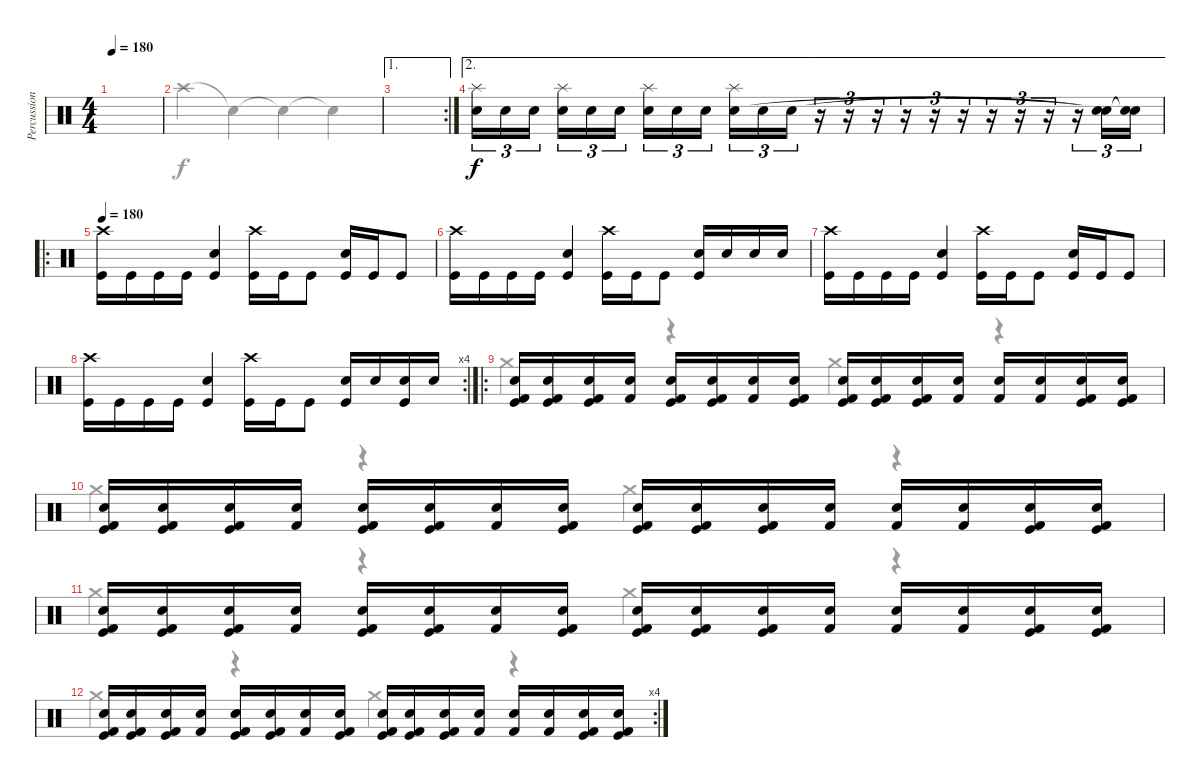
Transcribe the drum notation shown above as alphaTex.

\track ("Percussion" "Percussion") {instrument percussion}
\staff {score}
\articulation defaults
\voice
\ts (4 4)
\tempo 180
\clef neutral
\ks c
|
|
\ae 1
\rc 2
|
\ae 2
("Splash (hit)" "Snare (hit) 2").16{tu (3 2)} "Snare (hit) 2".16{tu (3 2)} "Snare (hit) 2".16{tu (3 2) beam splitsecondary} ("Splash (hit)" "Snare (hit) 2").16{tu (3 2)} "Snare (hit) 2".16{tu (3 2)} "Snare (hit) 2".16{tu (3 2)} ("Splash (hit)" "Snare (hit) 2").16{tu (3 2)} "Snare (hit) 2".16{tu (3 2)} "Snare (hit) 2".16{tu (3 2) beam splitsecondary} ("Splash (hit)" "Snare (hit) 2").16{tu (3 2)} "Snare (hit) 2".16{tu (3 2)} "Snare (hit) 2".16{tu (3 2)} r.16{tu (3 2)} r.16{tu (3 2)} r.16{tu (3 2)} r.16{tu (3 2)} r.16{tu (3 2)} r.16{tu (3 2)} r.16{tu (3 2)} r.16{tu (3 2)} r.16{tu (3 2)} r.16{tu (3 2)} ("Snare (hit)"{t} "Snare (hit)"{t}).16{tu (3 2)} ("Snare (hit)"{t} "Snare (hit)"{t}).16{tu (3 2)} |
\ro
\tempo 180
("Crash high (hit)" "Kick (hit)").16 "Kick (hit)".16 "Kick (hit)".16 "Kick (hit)".16 ("Snare (hit) 2" "Kick (hit)").4 ("Crash high (hit)" "Kick (hit)").16 "Kick (hit)".16 "Kick (hit)".8 ("Snare (hit) 2" "Kick (hit)").16 "Kick (hit)".16 "Kick (hit)".8 |
("Crash high (hit)" "Kick (hit)").16 "Kick (hit)".16 "Kick (hit)".16 "Kick (hit)".16 ("Snare (hit) 2" "Kick (hit)").4 ("Crash high (hit)" "Kick (hit)").16 "Kick (hit)".16 "Kick (hit)".8 ("Snare (hit) 2" "Kick (hit)").16 "Snare (hit) 2".16 "Snare (hit) 2".16 "Snare (hit) 2".16 |
("Crash high (hit)" "Kick (hit)").16 "Kick (hit)".16 "Kick (hit)".16 "Kick (hit)".16 ("Snare (hit) 2" "Kick (hit)").4 ("Crash high (hit)" "Kick (hit)").16 "Kick (hit)".16 "Kick (hit)".8 ("Snare (hit) 2" "Kick (hit)").16 "Kick (hit)".16 "Kick (hit)".8 |
\rc 4
("Crash high (hit)" "Kick (hit)").16 "Kick (hit)".16 "Kick (hit)".16 "Kick (hit)".16 ("Snare (hit) 2" "Kick (hit)").4 ("Crash high (hit)" "Kick (hit)").16 "Kick (hit)".16 "Kick (hit)".8 ("Snare (hit) 2" "Kick (hit)").16 "Snare (hit) 2".16 ("Snare (hit) 2" "Kick (hit)").16 "Snare (hit) 2".16 |
\ro
("Snare (hit) 2" "Kick (hit) 2" "Kick (hit)").16 ("Snare (hit) 2" "Kick (hit) 2" "Kick (hit)").16 ("Snare (hit) 2" "Kick (hit) 2" "Kick (hit)").16 ("Snare (hit) 2" "Kick (hit) 2").16 ("Snare (hit) 2" "Kick (hit) 2" "Kick (hit)").16 ("Snare (hit) 2" "Kick (hit) 2" "Kick (hit)").16 ("Snare (hit) 2" "Kick (hit) 2").16 ("Snare (hit) 2" "Kick (hit) 2" "Kick (hit)").16 ("Snare (hit) 2" "Kick (hit) 2" "Kick (hit)").16 ("Snare (hit) 2" "Kick (hit) 2" "Kick (hit)").16 ("Snare (hit) 2" "Kick (hit) 2" "Kick (hit)").16 ("Snare (hit) 2" "Kick (hit) 2").16 ("Snare (hit) 2" "Kick (hit) 2").16 ("Snare (hit) 2" "Kick (hit) 2").16 ("Snare (hit) 2" "Kick (hit) 2" "Kick (hit)").16 ("Snare (hit) 2" "Kick (hit) 2" "Kick (hit)").16 |
("Snare (hit) 2" "Kick (hit) 2" "Kick (hit)").16 ("Snare (hit) 2" "Kick (hit) 2" "Kick (hit)").16 ("Snare (hit) 2" "Kick (hit) 2" "Kick (hit)").16 ("Snare (hit) 2" "Kick (hit) 2").16 ("Snare (hit) 2" "Kick (hit) 2" "Kick (hit)").16 ("Snare (hit) 2" "Kick (hit) 2" "Kick (hit)").16 ("Snare (hit) 2" "Kick (hit) 2").16 ("Snare (hit) 2" "Kick (hit) 2" "Kick (hit)").16 ("Snare (hit) 2" "Kick (hit) 2" "Kick (hit)").16 ("Snare (hit) 2" "Kick (hit) 2" "Kick (hit)").16 ("Snare (hit) 2" "Kick (hit) 2" "Kick (hit)").16 ("Snare (hit) 2" "Kick (hit) 2").16 ("Snare (hit) 2" "Kick (hit) 2").16 ("Snare (hit) 2" "Kick (hit) 2").16 ("Snare (hit) 2" "Kick (hit) 2" "Kick (hit)").16 ("Snare (hit) 2" "Kick (hit) 2" "Kick (hit)").16 |
("Snare (hit) 2" "Kick (hit) 2" "Kick (hit)").16 ("Snare (hit) 2" "Kick (hit) 2" "Kick (hit)").16 ("Snare (hit) 2" "Kick (hit) 2" "Kick (hit)").16 ("Snare (hit) 2" "Kick (hit) 2").16 ("Snare (hit) 2" "Kick (hit) 2" "Kick (hit)").16 ("Snare (hit) 2" "Kick (hit) 2" "Kick (hit)").16 ("Snare (hit) 2" "Kick (hit) 2").16 ("Snare (hit) 2" "Kick (hit) 2" "Kick (hit)").16 ("Snare (hit) 2" "Kick (hit) 2" "Kick (hit)").16 ("Snare (hit) 2" "Kick (hit) 2" "Kick (hit)").16 ("Snare (hit) 2" "Kick (hit) 2" "Kick (hit)").16 ("Snare (hit) 2" "Kick (hit) 2").16 ("Snare (hit) 2" "Kick (hit) 2").16 ("Snare (hit) 2" "Kick (hit) 2").16 ("Snare (hit) 2" "Kick (hit) 2" "Kick (hit)").16 ("Snare (hit) 2" "Kick (hit) 2" "Kick (hit)").16 |
\rc 4
("Snare (hit) 2" "Kick (hit) 2" "Kick (hit)").16 ("Snare (hit) 2" "Kick (hit) 2" "Kick (hit)").16 ("Snare (hit) 2" "Kick (hit) 2" "Kick (hit)").16 ("Snare (hit) 2" "Kick (hit) 2").16 ("Snare (hit) 2" "Kick (hit) 2" "Kick (hit)").16 ("Snare (hit) 2" "Kick (hit) 2" "Kick (hit)").16 ("Snare (hit) 2" "Kick (hit) 2").16 ("Snare (hit) 2" "Kick (hit) 2" "Kick (hit)").16 ("Snare (hit) 2" "Kick (hit) 2" "Kick (hit)").16 ("Snare (hit) 2" "Kick (hit) 2" "Kick (hit)").16 ("Snare (hit) 2" "Kick (hit) 2" "Kick (hit)").16 ("Snare (hit) 2" "Kick (hit) 2").16 ("Snare (hit) 2" "Kick (hit) 2").16 ("Snare (hit) 2" "Kick (hit) 2").16 ("Snare (hit) 2" "Kick (hit) 2" "Kick (hit)").16 ("Snare (hit) 2" "Kick (hit) 2" "Kick (hit)").16
\voice
\clef neutral
\ottava regular
\simile none
\ks c
|
"Crash high (hit)".4 "Snare (hit)"{t}.4 "Snare (hit)"{t}.4 "Snare (hit)"{t}.4 |
|
|
|
|
|
|
"Crash medium (hit)".4 r.4 "Crash medium (hit)".4 r.4 |
"Crash medium (hit)".4 r.4 "Crash medium (hit)".4 r.4 |
"Crash medium (hit)".4 r.4 "Crash medium (hit)".4 r.4 |
"Crash medium (hit)".4 r.4 "Crash medium (hit)".4 r.4
